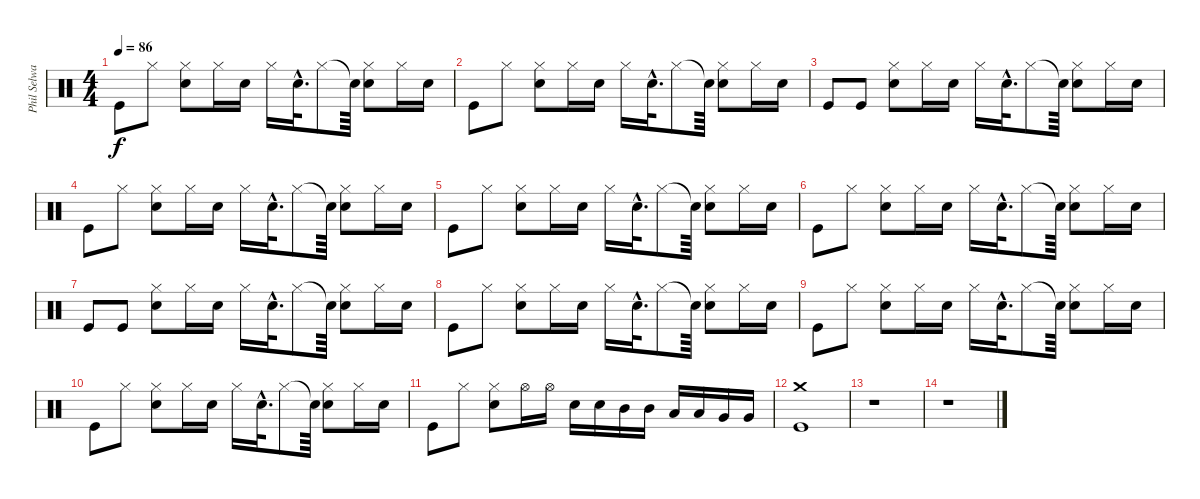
\track ("Phil Selway" "Phil Selwa") {instrument percussion}
\staff {score}
\articulation defaults
\ts (4 4)
\tempo 86
\clef neutral
\ks c "Kick (hit)".8{dy f} "Hi-Hat (closed)".8
("Hi-Hat (closed)" "Electric Snare (hit)").8 "Hi-Hat (closed)".16 "Electric Snare (hit)".16 "Hi-Hat (closed)".16 "Electric Snare (hit)"{hac}.32{d} "Hi-Hat (closed)".8 "Snare (hit)"{t}.64 ("Hi-Hat (closed)" "Electric Snare (hit)").8 "Hi-Hat (closed)".16 "Electric Snare (hit)".16 |
"Kick (hit)".8 "Hi-Hat (closed)".8 ("Hi-Hat (closed)" "Electric Snare (hit)").8 "Hi-Hat (closed)".16 "Electric Snare (hit)".16 "Hi-Hat (closed)".16 "Electric Snare (hit)"{hac}.32{d} "Hi-Hat (closed)".8 "Snare (hit)"{t}.64 ("Hi-Hat (closed)" "Electric Snare (hit)").8 "Hi-Hat (closed)".16 "Electric Snare (hit)".16 |
"Kick (hit)".8 "Kick (hit)".8 ("Hi-Hat (closed)" "Electric Snare (hit)").8 "Hi-Hat (closed)".16 "Electric Snare (hit)".16 "Hi-Hat (closed)".16 "Electric Snare (hit)"{hac}.32{d} "Hi-Hat (closed)".8 "Snare (hit)"{t}.64 ("Hi-Hat (closed)" "Electric Snare (hit)").8 "Hi-Hat (closed)".16 "Electric Snare (hit)".16 |
"Kick (hit)".8 "Hi-Hat (closed)".8 ("Hi-Hat (closed)" "Electric Snare (hit)").8 "Hi-Hat (closed)".16 "Electric Snare (hit)".16 "Hi-Hat (closed)".16 "Electric Snare (hit)"{hac}.32{d} "Hi-Hat (closed)".8 "Snare (hit)"{t}.64 ("Hi-Hat (closed)" "Electric Snare (hit)").8 "Hi-Hat (closed)".16 "Electric Snare (hit)".16 |
"Kick (hit)".8 "Hi-Hat (closed)".8 ("Hi-Hat (closed)" "Electric Snare (hit)").8 "Hi-Hat (closed)".16 "Electric Snare (hit)".16 "Hi-Hat (closed)".16 "Electric Snare (hit)"{hac}.32{d} "Hi-Hat (closed)".8 "Snare (hit)"{t}.64 ("Hi-Hat (closed)" "Electric Snare (hit)").8 "Hi-Hat (closed)".16 "Electric Snare (hit)".16 |
"Kick (hit)".8 "Hi-Hat (closed)".8 ("Hi-Hat (closed)" "Electric Snare (hit)").8 "Hi-Hat (closed)".16 "Electric Snare (hit)".16 "Hi-Hat (closed)".16 "Electric Snare (hit)"{hac}.32{d} "Hi-Hat (closed)".8 "Snare (hit)"{t}.64 ("Hi-Hat (closed)" "Electric Snare (hit)").8 "Hi-Hat (closed)".16 "Electric Snare (hit)".16 |
"Kick (hit)".8 "Kick (hit)".8 ("Hi-Hat (closed)" "Electric Snare (hit)").8 "Hi-Hat (closed)".16 "Electric Snare (hit)".16 "Hi-Hat (closed)".16 "Electric Snare (hit)"{hac}.32{d} "Hi-Hat (closed)".8 "Snare (hit)"{t}.64 ("Hi-Hat (closed)" "Electric Snare (hit)").8 "Hi-Hat (closed)".16 "Electric Snare (hit)".16 |
"Kick (hit)".8 "Hi-Hat (closed)".8 ("Hi-Hat (closed)" "Electric Snare (hit)").8 "Hi-Hat (closed)".16 "Electric Snare (hit)".16 "Hi-Hat (closed)".16 "Electric Snare (hit)"{hac}.32{d} "Hi-Hat (closed)".8 "Snare (hit)"{t}.64 ("Hi-Hat (closed)" "Electric Snare (hit)").8 "Hi-Hat (closed)".16 "Electric Snare (hit)".16 |
"Kick (hit)".8 "Hi-Hat (closed)".8 ("Hi-Hat (closed)" "Electric Snare (hit)").8 "Hi-Hat (closed)".16 "Electric Snare (hit)".16 "Hi-Hat (closed)".16 "Electric Snare (hit)"{hac}.32{d} "Hi-Hat (closed)".8 "Snare (hit)"{t}.64 ("Hi-Hat (closed)" "Electric Snare (hit)").8 "Hi-Hat (closed)".16 "Electric Snare (hit)".16 |
"Kick (hit)".8 "Hi-Hat (closed)".8 ("Hi-Hat (closed)" "Electric Snare (hit)").8 "Hi-Hat (closed)".16 "Electric Snare (hit)".16 "Hi-Hat (closed)".16 "Electric Snare (hit)"{hac}.32{d} "Hi-Hat (closed)".8 "Snare (hit)"{t}.64 ("Hi-Hat (closed)" "Electric Snare (hit)").8 "Hi-Hat (closed)".16 "Electric Snare (hit)".16 |
"Kick (hit)".8 "Hi-Hat (closed)".8 ("Hi-Hat (closed)" "Electric Snare (hit)").8 "Hi-Hat (open)".16 "Hi-Hat (open)".16 "Electric Snare (hit)".16 "Electric Snare (hit)".16 "Mid Tom (hit)".16 "Mid Tom (hit)".16 "Low Tom (hit)".16 "Low Tom (hit)".16 "Very Low Tom (hit)".16 "Very Low Tom (hit)".16 |
("Kick (hit)" "Crash medium (hit)").1 |
r.1 |
r.1
